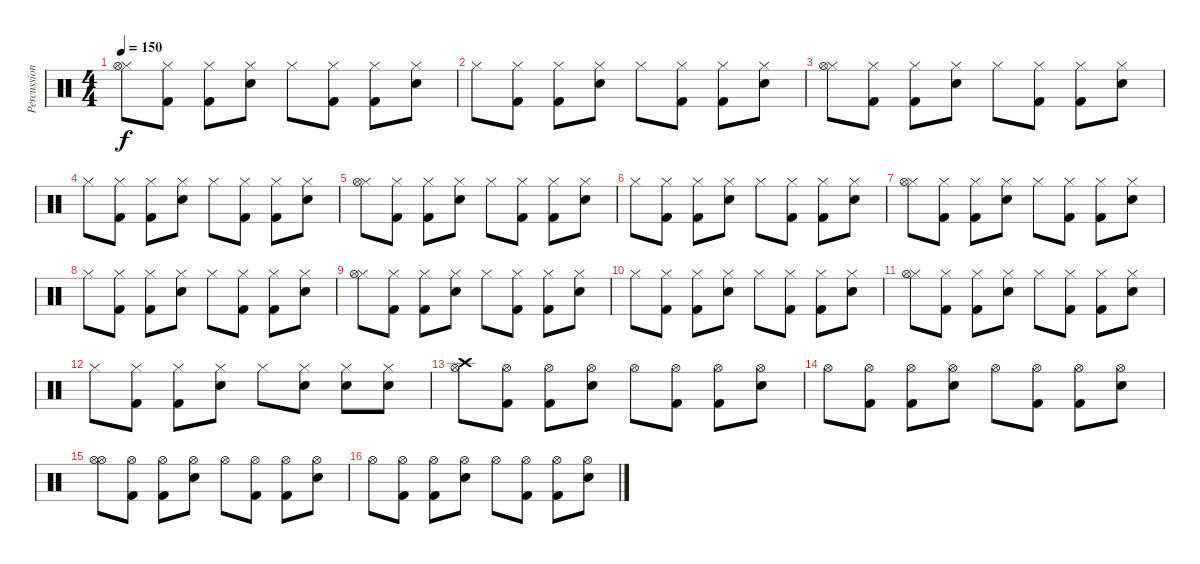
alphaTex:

\track ("Percussioni" "Percussion") {instrument percussion}
\staff {score}
\articulation defaults
\ts (4 4)
\tempo 150
\clef neutral
\ks c
("Hi-Hat (closed)" "Hi-Hat (open)").8{dy f} ("Hi-Hat (closed)" "Kick (hit) 2").8 ("Hi-Hat (closed)" "Kick (hit) 2").8 ("Hi-Hat (closed)" "Snare (hit) 2").8 "Hi-Hat (closed)".8 ("Hi-Hat (closed)" "Kick (hit) 2").8 ("Hi-Hat (closed)" "Kick (hit) 2").8 ("Hi-Hat (closed)" "Snare (hit) 2").8 |
"Hi-Hat (closed)".8 ("Hi-Hat (closed)" "Kick (hit) 2").8 ("Hi-Hat (closed)" "Kick (hit) 2").8 ("Hi-Hat (closed)" "Snare (hit) 2").8 "Hi-Hat (closed)".8 ("Hi-Hat (closed)" "Kick (hit) 2").8 ("Hi-Hat (closed)" "Kick (hit) 2").8 ("Hi-Hat (closed)" "Snare (hit) 2").8 |
("Hi-Hat (closed)" "Hi-Hat (open)").8 ("Hi-Hat (closed)" "Kick (hit) 2").8 ("Hi-Hat (closed)" "Kick (hit) 2").8 ("Hi-Hat (closed)" "Snare (hit) 2").8 "Hi-Hat (closed)".8 ("Hi-Hat (closed)" "Kick (hit) 2").8 ("Hi-Hat (closed)" "Kick (hit) 2").8 ("Hi-Hat (closed)" "Snare (hit) 2").8 |
"Hi-Hat (closed)".8 ("Hi-Hat (closed)" "Kick (hit) 2").8 ("Hi-Hat (closed)" "Kick (hit) 2").8 ("Hi-Hat (closed)" "Snare (hit) 2").8 "Hi-Hat (closed)".8 ("Hi-Hat (closed)" "Kick (hit) 2").8 ("Hi-Hat (closed)" "Kick (hit) 2").8 ("Hi-Hat (closed)" "Snare (hit) 2").8 |
("Hi-Hat (closed)" "Hi-Hat (open)").8 ("Hi-Hat (closed)" "Kick (hit) 2").8 ("Hi-Hat (closed)" "Kick (hit) 2").8 ("Hi-Hat (closed)" "Snare (hit) 2").8 "Hi-Hat (closed)".8 ("Hi-Hat (closed)" "Kick (hit) 2").8 ("Hi-Hat (closed)" "Kick (hit) 2").8 ("Hi-Hat (closed)" "Snare (hit) 2").8 |
"Hi-Hat (closed)".8 ("Hi-Hat (closed)" "Kick (hit) 2").8 ("Hi-Hat (closed)" "Kick (hit) 2").8 ("Hi-Hat (closed)" "Snare (hit) 2").8 "Hi-Hat (closed)".8 ("Hi-Hat (closed)" "Kick (hit) 2").8 ("Hi-Hat (closed)" "Kick (hit) 2").8 ("Hi-Hat (closed)" "Snare (hit) 2").8 |
("Hi-Hat (closed)" "Hi-Hat (open)").8 ("Hi-Hat (closed)" "Kick (hit) 2").8 ("Hi-Hat (closed)" "Kick (hit) 2").8 ("Hi-Hat (closed)" "Snare (hit) 2").8 "Hi-Hat (closed)".8 ("Hi-Hat (closed)" "Kick (hit) 2").8 ("Hi-Hat (closed)" "Kick (hit) 2").8 ("Hi-Hat (closed)" "Snare (hit) 2").8 |
"Hi-Hat (closed)".8 ("Hi-Hat (closed)" "Kick (hit) 2").8 ("Hi-Hat (closed)" "Kick (hit) 2").8 ("Hi-Hat (closed)" "Snare (hit) 2").8 "Hi-Hat (closed)".8 ("Hi-Hat (closed)" "Kick (hit) 2").8 ("Hi-Hat (closed)" "Kick (hit) 2").8 ("Hi-Hat (closed)" "Snare (hit) 2").8 |
("Hi-Hat (closed)" "Hi-Hat (open)").8 ("Hi-Hat (closed)" "Kick (hit) 2").8 ("Hi-Hat (closed)" "Kick (hit) 2").8 ("Hi-Hat (closed)" "Snare (hit) 2").8 "Hi-Hat (closed)".8 ("Hi-Hat (closed)" "Kick (hit) 2").8 ("Hi-Hat (closed)" "Kick (hit) 2").8 ("Hi-Hat (closed)" "Snare (hit) 2").8 |
"Hi-Hat (closed)".8 ("Hi-Hat (closed)" "Kick (hit) 2").8 ("Hi-Hat (closed)" "Kick (hit) 2").8 ("Hi-Hat (closed)" "Snare (hit) 2").8 "Hi-Hat (closed)".8 ("Hi-Hat (closed)" "Kick (hit) 2").8 ("Hi-Hat (closed)" "Kick (hit) 2").8 ("Hi-Hat (closed)" "Snare (hit) 2").8 |
("Hi-Hat (closed)" "Hi-Hat (open)").8 ("Hi-Hat (closed)" "Kick (hit) 2").8 ("Hi-Hat (closed)" "Kick (hit) 2").8 ("Hi-Hat (closed)" "Snare (hit) 2").8 "Hi-Hat (closed)".8 ("Hi-Hat (closed)" "Kick (hit) 2").8 ("Hi-Hat (closed)" "Kick (hit) 2").8 ("Hi-Hat (closed)" "Snare (hit) 2").8 |
"Hi-Hat (closed)".8 ("Hi-Hat (closed)" "Kick (hit) 2").8 ("Hi-Hat (closed)" "Kick (hit) 2").8 ("Hi-Hat (closed)" "Snare (hit) 2").8 "Hi-Hat (closed)".8 ("Hi-Hat (closed)" "Snare (hit) 2").8 ("Hi-Hat (closed)" "Snare (hit) 2").8 ("Hi-Hat (closed)" "Snare (hit) 2").8 |
("Hi-Hat (open)" "Crash high (hit)").8 ("Hi-Hat (open)" "Kick (hit) 2").8 ("Hi-Hat (open)" "Kick (hit) 2").8 ("Hi-Hat (open)" "Snare (hit) 2").8 "Hi-Hat (open)".8 ("Hi-Hat (open)" "Kick (hit) 2").8 ("Hi-Hat (open)" "Kick (hit) 2").8 ("Hi-Hat (open)" "Snare (hit) 2").8 |
"Hi-Hat (open)".8 ("Hi-Hat (open)" "Kick (hit) 2").8 ("Hi-Hat (open)" "Kick (hit) 2").8 ("Hi-Hat (open)" "Snare (hit) 2").8 "Hi-Hat (open)".8 ("Hi-Hat (open)" "Kick (hit) 2").8 ("Hi-Hat (open)" "Kick (hit) 2").8 ("Hi-Hat (open)" "Snare (hit) 2").8 |
("Hi-Hat (open)" "Hi-Hat (open)").8 ("Hi-Hat (open)" "Kick (hit) 2").8 ("Hi-Hat (open)" "Kick (hit) 2").8 ("Hi-Hat (open)" "Snare (hit) 2").8 "Hi-Hat (open)".8 ("Hi-Hat (open)" "Kick (hit) 2").8 ("Hi-Hat (open)" "Kick (hit) 2").8 ("Hi-Hat (open)" "Snare (hit) 2").8 |
"Hi-Hat (open)".8 ("Hi-Hat (open)" "Kick (hit) 2").8 ("Hi-Hat (open)" "Kick (hit) 2").8 ("Hi-Hat (open)" "Snare (hit) 2").8 "Hi-Hat (open)".8 ("Hi-Hat (open)" "Kick (hit) 2").8 ("Hi-Hat (open)" "Kick (hit) 2").8 ("Hi-Hat (open)" "Snare (hit) 2").8
